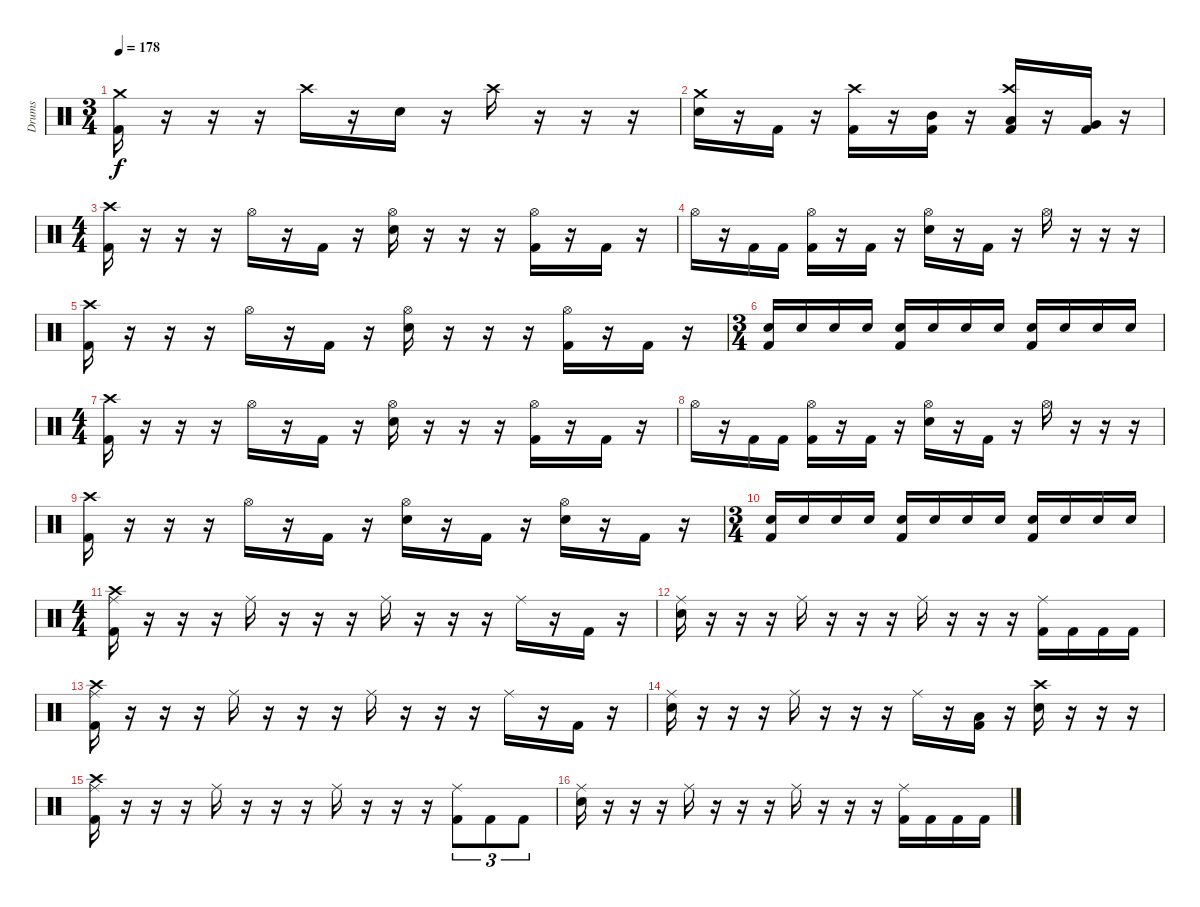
\track ("Drums" "Drums") {instrument percussion}
\staff {score}
\articulation defaults
\ts (3 4)
\tempo 178
\clef neutral
\ks c
("Crash medium (hit)" "Kick (hit) 2").16{dy f} r.16 r.16 r.16 "Crash high (hit)".16 r.16 "Electric Snare (hit)".16 r.16 "Crash high (hit)".16 r.16 r.16 r.16 |
("Crash medium (hit)" "Electric Snare (hit)").16 r.16 "Kick (hit) 2".16 r.16 ("Crash high (hit)" "Kick (hit) 2").16 r.16 ("Mid Tom (hit)" "Kick (hit) 2").16 r.16 ("Crash high (hit)" "Low Tom (hit)" "Kick (hit) 2").16 r.16 ("Very Low Tom (hit)" "Kick (hit) 2").16 r.16 |
\ts (4 4)
("Crash high (hit)" "Kick (hit) 2").16 r.16 r.16 r.16 "Hi-Hat (open)".16 r.16 "Kick (hit) 2".16 r.16 ("Hi-Hat (open)" "Electric Snare (hit)").16 r.16 r.16 r.16 ("Hi-Hat (open)" "Kick (hit) 2").16 r.16 "Kick (hit) 2".16 r.16 |
"Hi-Hat (open)".16 r.16 "Kick (hit) 2".16 "Kick (hit) 2".16 ("Hi-Hat (open)" "Kick (hit) 2").16 r.16 "Kick (hit) 2".16 r.16 ("Hi-Hat (open)" "Electric Snare (hit)").16 r.16 "Kick (hit) 2".16 r.16 "Hi-Hat (open)".16 r.16 r.16 r.16 |
("Crash high (hit)" "Kick (hit) 2").16 r.16 r.16 r.16 "Hi-Hat (open)".16 r.16 "Kick (hit) 2".16 r.16 ("Hi-Hat (open)" "Electric Snare (hit)").16 r.16 r.16 r.16 ("Hi-Hat (open)" "Kick (hit) 2").16 r.16 "Kick (hit) 2".16 r.16 |
\ts (3 4)
("Electric Snare (hit)" "Kick (hit) 2").16 "Electric Snare (hit)".16 "Electric Snare (hit)".16 "Electric Snare (hit)".16 ("Electric Snare (hit)" "Kick (hit) 2").16 "Electric Snare (hit)".16 "Electric Snare (hit)".16 "Electric Snare (hit)".16 ("Electric Snare (hit)" "Kick (hit) 2").16 "Electric Snare (hit)".16 "Electric Snare (hit)".16 "Electric Snare (hit)".16 |
\ts (4 4)
("Crash high (hit)" "Kick (hit) 2").16 r.16 r.16 r.16 "Hi-Hat (open)".16 r.16 "Kick (hit) 2".16 r.16 ("Hi-Hat (open)" "Electric Snare (hit)").16 r.16 r.16 r.16 ("Hi-Hat (open)" "Kick (hit) 2").16 r.16 "Kick (hit) 2".16 r.16 |
"Hi-Hat (open)".16 r.16 "Kick (hit) 2".16 "Kick (hit) 2".16 ("Hi-Hat (open)" "Kick (hit) 2").16 r.16 "Kick (hit) 2".16 r.16 ("Hi-Hat (open)" "Electric Snare (hit)").16 r.16 "Kick (hit) 2".16 r.16 "Hi-Hat (open)".16 r.16 r.16 r.16 |
("Crash high (hit)" "Kick (hit) 2").16 r.16 r.16 r.16 "Hi-Hat (open)".16 r.16 "Kick (hit) 2".16 r.16 ("Hi-Hat (open)" "Electric Snare (hit)").16 r.16 "Kick (hit) 2".16 r.16 ("Hi-Hat (open)" "Electric Snare (hit)").16 r.16 "Kick (hit) 2".16 r.16 |
\ts (3 4)
("Electric Snare (hit)" "Kick (hit) 2").16 "Electric Snare (hit)".16 "Electric Snare (hit)".16 "Electric Snare (hit)".16 ("Electric Snare (hit)" "Kick (hit) 2").16 "Electric Snare (hit)".16 "Electric Snare (hit)".16 "Electric Snare (hit)".16 ("Electric Snare (hit)" "Kick (hit) 2").16 "Electric Snare (hit)".16 "Electric Snare (hit)".16 "Electric Snare (hit)".16 |
\ts (4 4)
("Ride (middle)" "Crash high (hit)" "Kick (hit) 2").16 r.16 r.16 r.16 "Ride (middle)".16 r.16 r.16 r.16 "Ride (middle)".16 r.16 r.16 r.16 "Ride (middle)".16 r.16 "Kick (hit) 2".16 r.16 |
("Ride (middle)" "Electric Snare (hit)").16 r.16 r.16 r.16 "Ride (middle)".16 r.16 r.16 r.16 "Ride (middle)".16 r.16 r.16 r.16 ("Ride (middle)" "Kick (hit) 2").16 "Kick (hit) 2".16 "Kick (hit) 2".16 "Kick (hit) 2".16 |
("Ride (middle)" "Crash high (hit)" "Kick (hit) 2").16 r.16 r.16 r.16 "Ride (middle)".16 r.16 r.16 r.16 "Ride (middle)".16 r.16 r.16 r.16 "Ride (middle)".16 r.16 "Kick (hit) 2".16 r.16 |
("Ride (middle)" "Electric Snare (hit)").16 r.16 r.16 r.16 "Ride (middle)".16 r.16 r.16 r.16 "Ride (middle)".16 r.16 ("Low Tom (hit)" "Kick (hit) 2").16 r.16 ("Crash high (hit)" "Electric Snare (hit)").16 r.16 r.16 r.16 |
("Ride (middle)" "Crash high (hit)" "Kick (hit) 2").16 r.16 r.16 r.16 "Ride (middle)".16 r.16 r.16 r.16 "Ride (middle)".16 r.16 r.16 r.16 ("Ride (middle)" "Kick (hit) 2").8{tu (3 2)} "Kick (hit) 2".8{tu (3 2)} "Kick (hit) 2".8{tu (3 2)} |
("Ride (middle)" "Electric Snare (hit)").16 r.16 r.16 r.16 "Ride (middle)".16 r.16 r.16 r.16 "Ride (middle)".16 r.16 r.16 r.16 ("Ride (middle)" "Kick (hit) 2").16 "Kick (hit) 2".16 "Kick (hit) 2".16 "Kick (hit) 2".16
